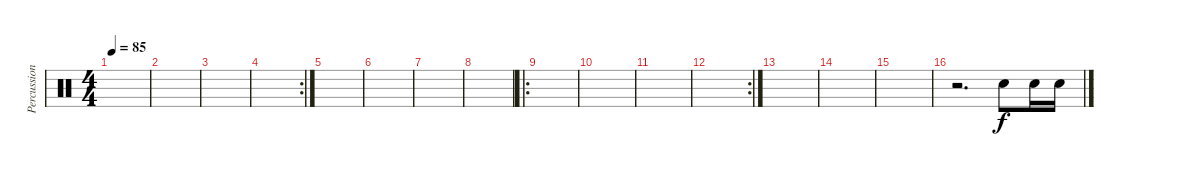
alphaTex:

\track ("Percussion" "Percussion") {instrument percussion}
\staff {score}
\articulation defaults
\ts (4 4)
\tempo 85
\clef neutral
\ks c
|
|
|
\rc 2
|
|
|
|
|
\ro
|
|
|
\rc 2
|
|
|
|
r.2{d} "Snare (hit) 2".8 "Snare (hit) 2".16 "Snare (hit) 2".16
